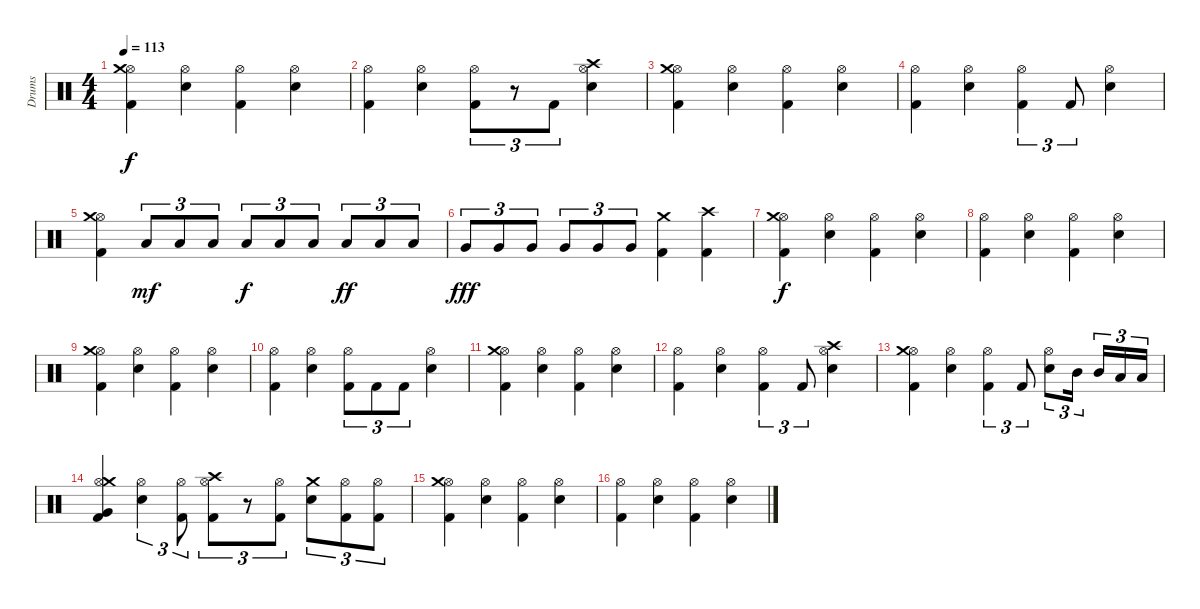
\track ("Drums" "Drums") {instrument percussion}
\staff {score}
\articulation defaults
\ts (4 4)
\tempo 113
\clef neutral
\ks c
("Kick (hit) 2" "Hi-Hat (open)" "Crash medium (hit)").4{dy f} ("Snare (hit) 2" "Hi-Hat (open)").4 ("Kick (hit) 2" "Hi-Hat (open)").4 ("Snare (hit) 2" "Hi-Hat (open)").4 |
("Kick (hit) 2" "Hi-Hat (open)").4 ("Snare (hit) 2" "Hi-Hat (open)").4 ("Kick (hit) 2" "Hi-Hat (open)").8{tu (3 2)} r.8{tu (3 2)} "Kick (hit) 2".8{tu (3 2)} ("Snare (hit) 2" "Hi-Hat (open)" "Crash high (hit)").4 |
("Kick (hit) 2" "Hi-Hat (open)" "Crash medium (hit)").4 ("Snare (hit) 2" "Hi-Hat (open)").4 ("Kick (hit) 2" "Hi-Hat (open)").4 ("Snare (hit) 2" "Hi-Hat (open)").4 |
("Kick (hit) 2" "Hi-Hat (open)").4 ("Snare (hit) 2" "Hi-Hat (open)").4 ("Kick (hit) 2" "Hi-Hat (open)").4{tu (3 2)} "Kick (hit) 2".8{tu (3 2)} ("Snare (hit) 2" "Hi-Hat (open)").4 |
("Kick (hit) 2" "Hi-Hat (open)" "Crash medium (hit)").4 "Low Floor Tom (hit)".8{tu (3 2) dy mf} "Low Floor Tom (hit)".8{tu (3 2)} "Low Floor Tom (hit)".8{tu (3 2)} "Low Floor Tom (hit)".8{tu (3 2) dy f} "Low Floor Tom (hit)".8{tu (3 2)} "Low Floor Tom (hit)".8{tu (3 2)} "Low Floor Tom (hit)".8{tu (3 2) dy ff} "Low Floor Tom (hit)".8{tu (3 2)} "Low Floor Tom (hit)".8{tu (3 2)} |
"Very Low Tom (hit)".8{tu (3 2) dy fff} "Very Low Tom (hit)".8{tu (3 2)} "Very Low Tom (hit)".8{tu (3 2)} "Very Low Tom (hit)".8{tu (3 2)} "Very Low Tom (hit)".8{tu (3 2)} "Very Low Tom (hit)".8{tu (3 2)} ("Kick (hit) 2" "Crash medium (hit)").4 ("Kick (hit) 2" "Crash high (hit)").4 |
("Kick (hit) 2" "Hi-Hat (open)" "Crash medium (hit)").4{dy f} ("Snare (hit) 2" "Hi-Hat (open)").4 ("Kick (hit) 2" "Hi-Hat (open)").4 ("Snare (hit) 2" "Hi-Hat (open)").4 |
("Kick (hit) 2" "Hi-Hat (open)").4 ("Snare (hit) 2" "Hi-Hat (open)").4 ("Kick (hit) 2" "Hi-Hat (open)").4 ("Snare (hit) 2" "Hi-Hat (open)").4 |
("Kick (hit) 2" "Hi-Hat (open)" "Crash medium (hit)").4 ("Snare (hit) 2" "Hi-Hat (open)").4 ("Kick (hit) 2" "Hi-Hat (open)").4 ("Snare (hit) 2" "Hi-Hat (open)").4 |
("Kick (hit) 2" "Hi-Hat (open)").4 ("Snare (hit) 2" "Hi-Hat (open)").4 ("Kick (hit) 2" "Hi-Hat (open)").8{tu (3 2)} "Kick (hit) 2".8{tu (3 2)} "Kick (hit) 2".8{tu (3 2)} ("Snare (hit) 2" "Hi-Hat (open)").4 |
("Kick (hit) 2" "Hi-Hat (open)" "Crash medium (hit)").4 ("Snare (hit) 2" "Hi-Hat (open)").4 ("Kick (hit) 2" "Hi-Hat (open)").4 ("Snare (hit) 2" "Hi-Hat (open)").4 |
("Kick (hit) 2" "Hi-Hat (open)").4 ("Snare (hit) 2" "Hi-Hat (open)").4 ("Kick (hit) 2" "Hi-Hat (open)").4{tu (3 2)} "Kick (hit) 2".8{tu (3 2)} ("Snare (hit) 2" "Hi-Hat (open)" "Crash high (hit)").4 |
("Kick (hit) 2" "Hi-Hat (open)" "Crash medium (hit)").4 ("Snare (hit) 2" "Hi-Hat (open)").4 ("Kick (hit) 2" "Hi-Hat (open)").4{tu (3 2)} "Kick (hit) 2".8{tu (3 2)} ("Snare (hit) 2" "Hi-Hat (open)").8{tu (3 2)} "Mid Tom (hit)".16{tu (3 2)} "Mid Tom (hit)".16{tu (3 2)} "Low Tom (hit)".16{tu (3 2)} "Low Tom (hit)".16{tu (3 2)} |
("Kick (hit) 2" "Very Low Tom (hit)" "Hi-Hat (open)" "Crash medium (hit)").4 ("Snare (hit) 2" "Hi-Hat (open)").4{tu (3 2)} ("Kick (hit) 2" "Hi-Hat (open)").8{tu (3 2)} ("Kick (hit) 2" "Hi-Hat (open)" "Crash high (hit)").8{tu (3 2)} r.8{tu (3 2)} ("Kick (hit) 2" "Hi-Hat (open)").8{tu (3 2)} ("Snare (hit) 2" "Crash medium (hit)").8{tu (3 2)} ("Kick (hit) 2" "Hi-Hat (open)").8{tu (3 2)} ("Kick (hit) 2" "Hi-Hat (open)").8{tu (3 2)} |
("Kick (hit) 2" "Hi-Hat (open)" "Crash medium (hit)").4 ("Snare (hit) 2" "Hi-Hat (open)").4 ("Kick (hit) 2" "Hi-Hat (open)").4 ("Snare (hit) 2" "Hi-Hat (open)").4 |
("Kick (hit) 2" "Hi-Hat (open)").4 ("Snare (hit) 2" "Hi-Hat (open)").4 ("Kick (hit) 2" "Hi-Hat (open)").4 ("Snare (hit) 2" "Hi-Hat (open)").4
